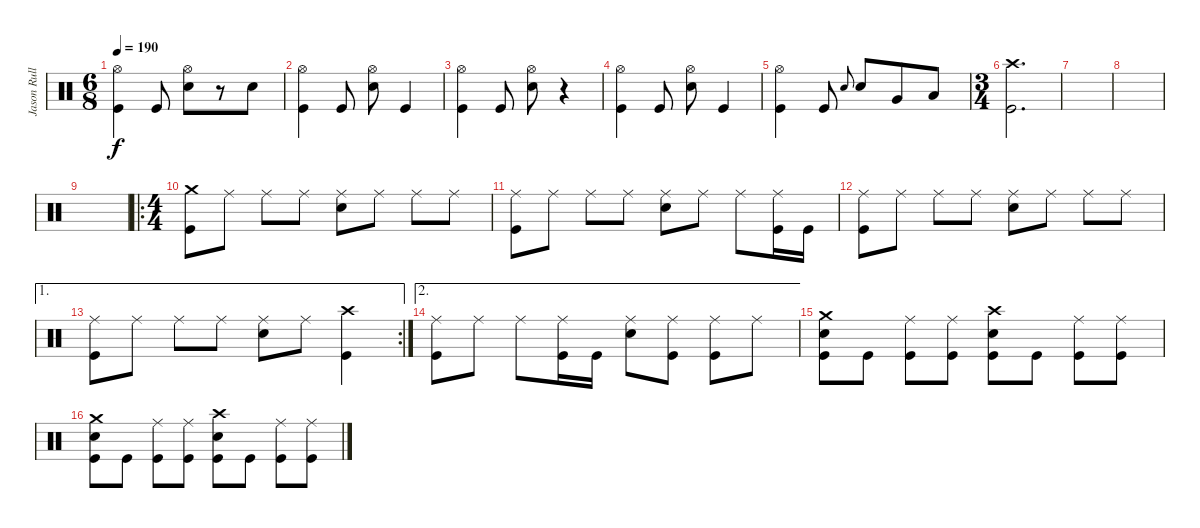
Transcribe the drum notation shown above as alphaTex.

\track ("Jason Rullo - Drums and Percussion" "Jason Rull") {instrument percussion}
\staff {score}
\articulation defaults
\ts (6 8)
\tempo 190
\clef neutral
\ks c
("Kick (hit)" "Hi-Hat (open)").4{dy f} "Kick (hit)".8 ("Snare (hit) 2" "Hi-Hat (open)").8 r.8 "Snare (hit) 2".8 |
("Kick (hit)" "Hi-Hat (open)").4 "Kick (hit)".8 ("Snare (hit) 2" "Hi-Hat (open)").8 "Kick (hit)".4 |
("Kick (hit)" "Hi-Hat (open)").4 "Kick (hit)".8 ("Snare (hit) 2" "Hi-Hat (open)").8 r.4 |
("Kick (hit)" "Hi-Hat (open)").4 "Kick (hit)".8 ("Snare (hit) 2" "Hi-Hat (open)").8 "Kick (hit)".4 |
("Kick (hit)" "Hi-Hat (open)").4 "Kick (hit)".8 "Snare (hit) 2".8{gr onbeat} "Snare (hit) 2".8 "Very Low Tom (hit)".8 "Low Floor Tom (hit)".8 |
\ts (3 4)
("Kick (hit)" "Crash high (hit)").2{d} |
|
|
|
\ro
\ts (4 4)
("Crash medium (hit)" "Kick (hit)").8 "Ride (middle)".8 "Ride (middle)".8 "Ride (middle)".8 ("Snare (hit) 2" "Ride (middle)").8 "Ride (middle)".8 "Ride (middle)".8 "Ride (middle)".8 |
("Kick (hit)" "Ride (middle)").8 "Ride (middle)".8 "Ride (middle)".8 "Ride (middle)".8 ("Snare (hit) 2" "Ride (middle)").8 "Ride (middle)".8 "Ride (middle)".8 ("Kick (hit)" "Ride (middle)").16 "Kick (hit)".16 |
("Ride (middle)" "Kick (hit)").8 "Ride (middle)".8 "Ride (middle)".8 "Ride (middle)".8 ("Snare (hit) 2" "Ride (middle)").8 "Ride (middle)".8 "Ride (middle)".8 "Ride (middle)".8 |
\ae 1
\rc 2
("Kick (hit)" "Ride (middle)").8 "Ride (middle)".8 "Ride (middle)".8 "Ride (middle)".8 ("Snare (hit) 2" "Ride (middle)").8 "Ride (middle)".8 ("Kick (hit)" "Crash high (hit)").4 |
\ae 2
("Kick (hit)" "Ride (middle)").8 "Ride (middle)".8 "Ride (middle)".8 ("Kick (hit)" "Ride (middle)").16 "Kick (hit)".16 ("Ride (middle)" "Snare (hit) 2").8 ("Kick (hit)" "Ride (middle)").8 ("Ride (middle)" "Kick (hit)").8 "Ride (middle)".8 |
("Crash medium (hit)" "Snare (hit) 2" "Kick (hit)").8 "Kick (hit)".8 ("Ride (middle)" "Kick (hit)").8 ("Ride (middle)" "Kick (hit)").8 ("Crash high (hit)" "Snare (hit) 2" "Kick (hit)").8 "Kick (hit)".8 ("Ride (middle)" "Kick (hit)").8 ("Ride (middle)" "Kick (hit)").8 |
("Crash medium (hit)" "Snare (hit) 2" "Kick (hit)").8 "Kick (hit)".8 ("Ride (middle)" "Kick (hit)").8 ("Ride (middle)" "Kick (hit)").8 ("Crash high (hit)" "Snare (hit) 2" "Kick (hit)").8 "Kick (hit)".8 ("Ride (middle)" "Kick (hit)").8 ("Ride (middle)" "Kick (hit)").8
